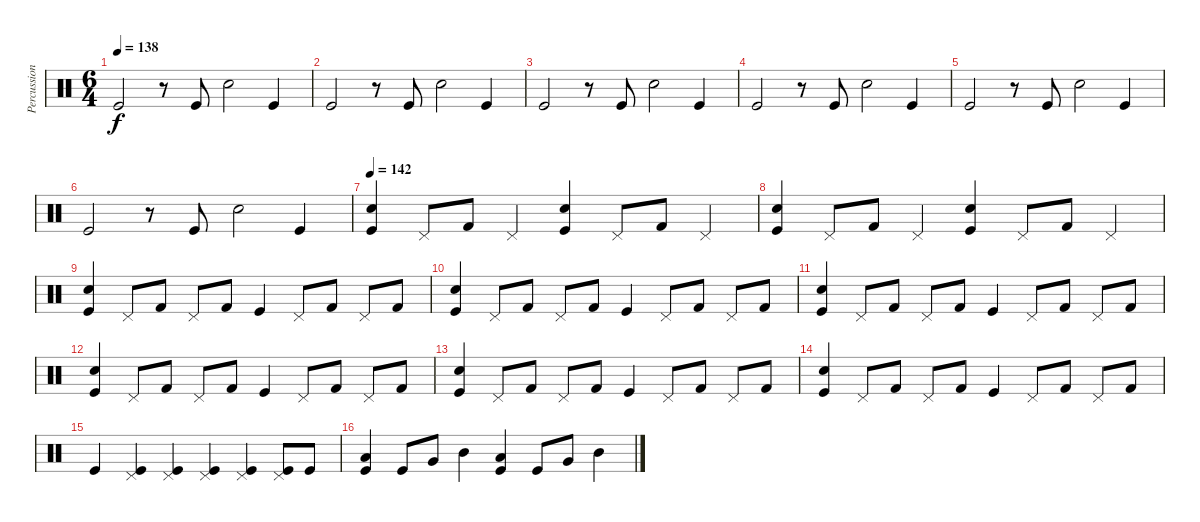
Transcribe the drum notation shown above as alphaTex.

\track ("Percussion" "Percussion") {instrument percussion}
\staff {score}
\articulation defaults
\ts (6 4)
\tempo 138
\clef neutral
\ks c "Kick (hit)".2{dy f}
r.8 "Kick (hit)".8 "Snare (hit) 2".2 "Kick (hit)".4 |
"Kick (hit)".2 r.8 "Kick (hit)".8 "Snare (hit) 2".2 "Kick (hit)".4 |
"Kick (hit)".2 r.8 "Kick (hit)".8 "Snare (hit) 2".2 "Kick (hit)".4 |
"Kick (hit)".2 r.8 "Kick (hit)".8 "Snare (hit) 2".2 "Kick (hit)".4 |
"Kick (hit)".2 r.8 "Kick (hit)".8 "Snare (hit) 2".2 "Kick (hit)".4 |
"Kick (hit)".2 r.8 "Kick (hit)".8 "Snare (hit) 2".2 "Kick (hit)".4 |
\tempo 142
("Kick (hit)" "Snare (hit) 2").4 "Pedal Hi-Hat (hit)".8 "Kick (hit) 2".8 "Pedal Hi-Hat (hit)".4 ("Kick (hit)" "Snare (hit) 2").4 "Pedal Hi-Hat (hit)".8 "Kick (hit) 2".8 "Pedal Hi-Hat (hit)".4 |
("Kick (hit)" "Snare (hit) 2").4 "Pedal Hi-Hat (hit)".8 "Kick (hit) 2".8 "Pedal Hi-Hat (hit)".4 ("Kick (hit)" "Snare (hit) 2").4 "Pedal Hi-Hat (hit)".8 "Kick (hit) 2".8 "Pedal Hi-Hat (hit)".4 |
("Kick (hit)" "Snare (hit) 2").4 "Pedal Hi-Hat (hit)".8 "Kick (hit) 2".8 "Pedal Hi-Hat (hit)".8 "Kick (hit) 2".8 "Kick (hit)".4 "Pedal Hi-Hat (hit)".8 "Kick (hit) 2".8 "Pedal Hi-Hat (hit)".8 "Kick (hit) 2".8 |
("Kick (hit)" "Snare (hit) 2").4 "Pedal Hi-Hat (hit)".8 "Kick (hit) 2".8 "Pedal Hi-Hat (hit)".8 "Kick (hit) 2".8 "Kick (hit)".4 "Pedal Hi-Hat (hit)".8 "Kick (hit) 2".8 "Pedal Hi-Hat (hit)".8 "Kick (hit) 2".8 |
("Kick (hit)" "Snare (hit) 2").4 "Pedal Hi-Hat (hit)".8 "Kick (hit) 2".8 "Pedal Hi-Hat (hit)".8 "Kick (hit) 2".8 "Kick (hit)".4 "Pedal Hi-Hat (hit)".8 "Kick (hit) 2".8 "Pedal Hi-Hat (hit)".8 "Kick (hit) 2".8 |
("Kick (hit)" "Snare (hit) 2").4 "Pedal Hi-Hat (hit)".8 "Kick (hit) 2".8 "Pedal Hi-Hat (hit)".8 "Kick (hit) 2".8 "Kick (hit)".4 "Pedal Hi-Hat (hit)".8 "Kick (hit) 2".8 "Pedal Hi-Hat (hit)".8 "Kick (hit) 2".8 |
("Kick (hit)" "Snare (hit) 2").4 "Pedal Hi-Hat (hit)".8 "Kick (hit) 2".8 "Pedal Hi-Hat (hit)".8 "Kick (hit) 2".8 "Kick (hit)".4 "Pedal Hi-Hat (hit)".8 "Kick (hit) 2".8 "Pedal Hi-Hat (hit)".8 "Kick (hit) 2".8 |
("Kick (hit)" "Snare (hit) 2").4 "Pedal Hi-Hat (hit)".8 "Kick (hit) 2".8 "Pedal Hi-Hat (hit)".8 "Kick (hit) 2".8 "Kick (hit)".4 "Pedal Hi-Hat (hit)".8 "Kick (hit) 2".8 "Pedal Hi-Hat (hit)".8 "Kick (hit) 2".8 |
"Kick (hit)".4 ("Kick (hit)" "Pedal Hi-Hat (hit)").4 ("Kick (hit)" "Pedal Hi-Hat (hit)").4 ("Kick (hit)" "Pedal Hi-Hat (hit)").4 ("Kick (hit)" "Pedal Hi-Hat (hit)").4 ("Kick (hit)" "Pedal Hi-Hat (hit)").8 "Kick (hit)".8 |
("Kick (hit)" "Low Floor Tom (hit)").4 "Kick (hit)".8 "Very Low Tom (hit)".8 "Mid Tom (hit)".4 ("Kick (hit)" "Low Floor Tom (hit)").4 "Kick (hit)".8 "Very Low Tom (hit)".8 "Mid Tom (hit)".4
